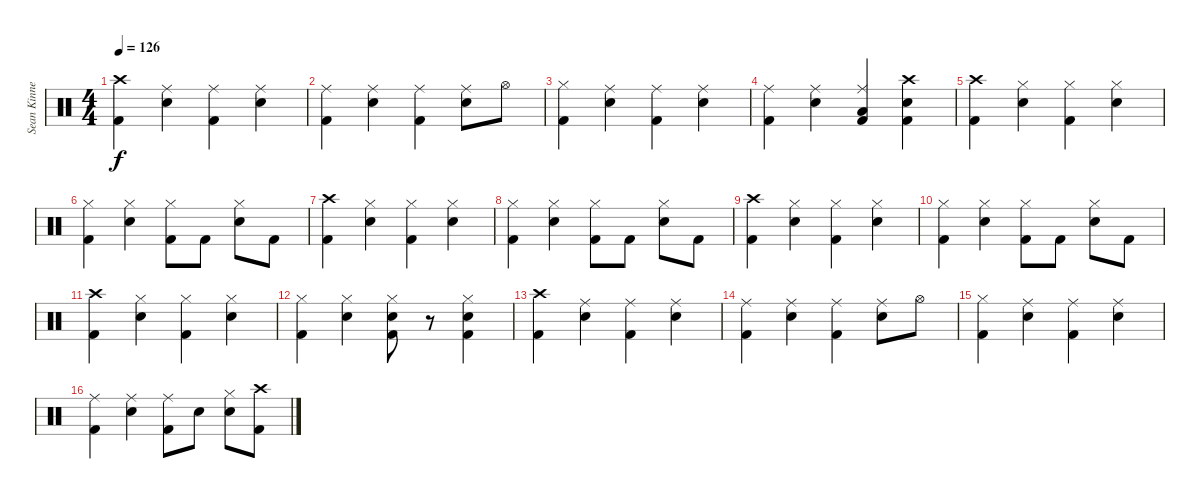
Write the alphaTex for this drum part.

\track ("Sean Kinney - Drums" "Sean Kinne") {instrument percussion}
\staff {score}
\articulation defaults
\ts (4 4)
\tempo 126
\clef neutral
\ks c
("Crash high (hit)" "Kick (hit) 2").4{dy f} ("Ride (middle)" "Electric Snare (hit)").4 ("Ride (middle)" "Kick (hit) 2").4 ("Ride (middle)" "Electric Snare (hit)").4 |
("Ride (middle)" "Kick (hit) 2").4 ("Ride (middle)" "Electric Snare (hit)").4 ("Ride (middle)" "Kick (hit) 2").4 ("Ride (middle)" "Electric Snare (hit)").8 "Hi-Hat (open)".8 |
("Hi-Hat (closed)" "Kick (hit) 2").4 ("Ride (middle)" "Electric Snare (hit)").4 ("Ride (middle)" "Kick (hit) 2").4 ("Ride (middle)" "Electric Snare (hit)").4 |
("Ride (middle)" "Kick (hit) 2").4 ("Ride (middle)" "Electric Snare (hit)").4 ("Ride (middle)" "Low Tom (hit)" "Kick (hit) 2").4 ("Crash high (hit)" "Electric Snare (hit)" "Kick (hit) 2").4 |
("Crash high (hit)" "Kick (hit) 2").4 ("Hi-Hat (closed)" "Electric Snare (hit)").4 ("Hi-Hat (closed)" "Kick (hit) 2").4 ("Hi-Hat (closed)" "Electric Snare (hit)").4 |
("Hi-Hat (closed)" "Kick (hit) 2").4 ("Hi-Hat (closed)" "Electric Snare (hit)").4 ("Hi-Hat (closed)" "Kick (hit) 2").8 "Kick (hit) 2".8 ("Hi-Hat (closed)" "Electric Snare (hit)").8 "Kick (hit) 2".8 |
("Crash high (hit)" "Kick (hit) 2").4 ("Hi-Hat (closed)" "Electric Snare (hit)").4 ("Hi-Hat (closed)" "Kick (hit) 2").4 ("Hi-Hat (closed)" "Electric Snare (hit)").4 |
("Hi-Hat (closed)" "Kick (hit) 2").4 ("Hi-Hat (closed)" "Electric Snare (hit)").4 ("Hi-Hat (closed)" "Kick (hit) 2").8 "Kick (hit) 2".8 ("Hi-Hat (closed)" "Electric Snare (hit)").8 "Kick (hit) 2".8 |
("Crash high (hit)" "Kick (hit) 2").4 ("Hi-Hat (closed)" "Electric Snare (hit)").4 ("Hi-Hat (closed)" "Kick (hit) 2").4 ("Hi-Hat (closed)" "Electric Snare (hit)").4 |
("Hi-Hat (closed)" "Kick (hit) 2").4 ("Hi-Hat (closed)" "Electric Snare (hit)").4 ("Hi-Hat (closed)" "Kick (hit) 2").8 "Kick (hit) 2".8 ("Hi-Hat (closed)" "Electric Snare (hit)").8 "Kick (hit) 2".8 |
("Crash high (hit)" "Kick (hit) 2").4 ("Hi-Hat (closed)" "Electric Snare (hit)").4 ("Hi-Hat (closed)" "Kick (hit) 2").4 ("Hi-Hat (closed)" "Electric Snare (hit)").4 |
("Hi-Hat (closed)" "Kick (hit) 2").4 ("Hi-Hat (closed)" "Electric Snare (hit)").4 ("Hi-Hat (closed)" "Electric Snare (hit)" "Kick (hit) 2").8 r.8 ("Hi-Hat (closed)" "Electric Snare (hit)" "Kick (hit) 2").4 |
("Crash high (hit)" "Kick (hit) 2").4 ("Ride (middle)" "Electric Snare (hit)").4 ("Ride (middle)" "Kick (hit) 2").4 ("Ride (middle)" "Electric Snare (hit)").4 |
("Ride (middle)" "Kick (hit) 2").4 ("Ride (middle)" "Electric Snare (hit)").4 ("Ride (middle)" "Kick (hit) 2").4 ("Ride (middle)" "Electric Snare (hit)").8 "Hi-Hat (open)".8 |
("Hi-Hat (closed)" "Kick (hit) 2").4 ("Ride (middle)" "Electric Snare (hit)").4 ("Ride (middle)" "Kick (hit) 2").4 ("Ride (middle)" "Electric Snare (hit)").4 |
("Ride (middle)" "Kick (hit) 2").4 ("Ride (middle)" "Electric Snare (hit)").4 ("Ride (middle)" "Kick (hit) 2").8 "Electric Snare (hit)".8 ("Hi-Hat (closed)" "Electric Snare (hit)").8 ("Crash high (hit)" "Kick (hit) 2").8
